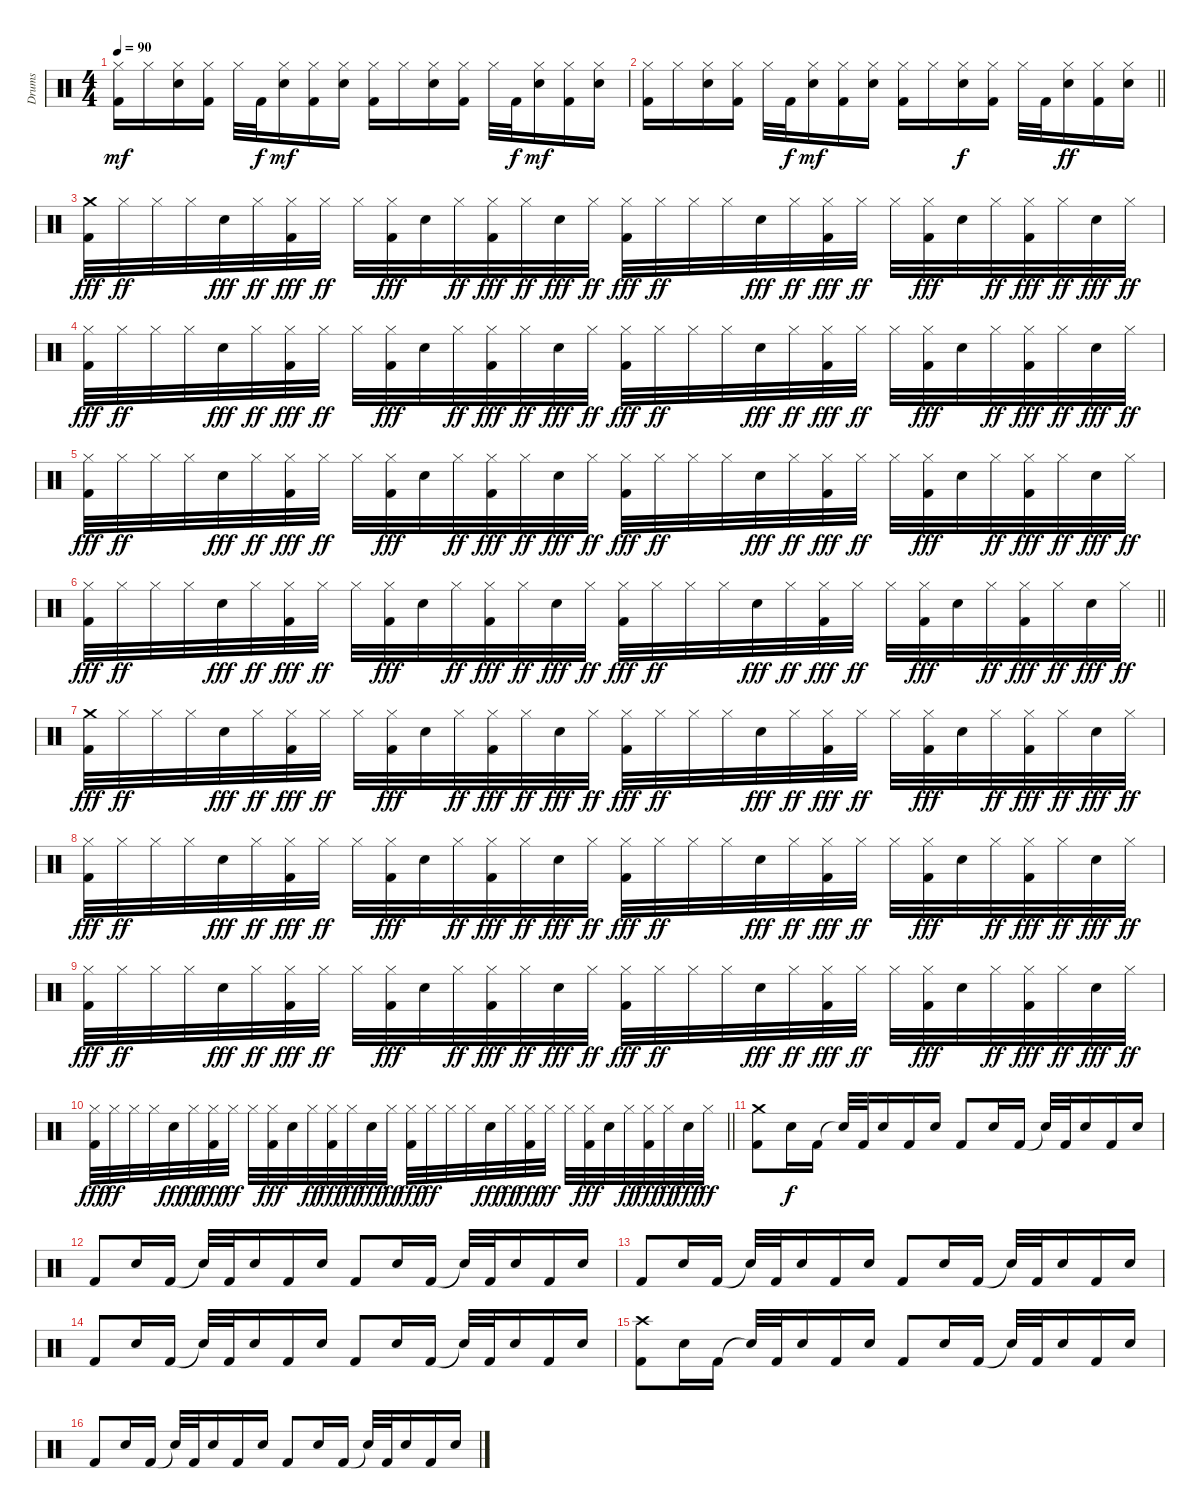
\track ("Drums" "Drums") {instrument percussion}
\staff {score}
\articulation defaults
\ts (4 4)
\tempo 90
\clef neutral
\ks c
("Hi-Hat (closed)" "Kick (hit) 2").16{dy mf} "Hi-Hat (closed)".16 ("Hi-Hat (closed)" "Snare (hit) 2").16 ("Hi-Hat (closed)" "Kick (hit) 2").16 "Hi-Hat (closed)".32 "Kick (hit) 2".32{dy f} ("Hi-Hat (closed)" "Snare (hit) 2").16{dy mf} ("Hi-Hat (closed)" "Kick (hit) 2").16 ("Hi-Hat (closed)" "Snare (hit) 2").16 ("Hi-Hat (closed)" "Kick (hit) 2").16 "Hi-Hat (closed)".16 ("Hi-Hat (closed)" "Snare (hit) 2").16 ("Hi-Hat (closed)" "Kick (hit) 2").16 "Hi-Hat (closed)".32 "Kick (hit) 2".32{dy f} ("Hi-Hat (closed)" "Snare (hit) 2").16{dy mf} ("Hi-Hat (closed)" "Kick (hit) 2").16 ("Hi-Hat (closed)" "Snare (hit) 2").16 |
\barLineRight lightlight
("Hi-Hat (closed)" "Kick (hit) 2").16 "Hi-Hat (closed)".16 ("Hi-Hat (closed)" "Snare (hit) 2").16 ("Hi-Hat (closed)" "Kick (hit) 2").16 "Hi-Hat (closed)".32 "Kick (hit) 2".32{dy f} ("Hi-Hat (closed)" "Snare (hit) 2").16{dy mf} ("Hi-Hat (closed)" "Kick (hit) 2").16 ("Hi-Hat (closed)" "Snare (hit) 2").16 ("Hi-Hat (closed)" "Kick (hit) 2").16 "Hi-Hat (closed)".16 ("Hi-Hat (closed)" "Snare (hit) 2").16{dy f} ("Hi-Hat (closed)" "Kick (hit) 2").16 "Hi-Hat (closed)".32 "Kick (hit) 2".32 ("Hi-Hat (closed)" "Snare (hit) 2").16{dy ff} ("Hi-Hat (closed)" "Kick (hit) 2").16 ("Hi-Hat (closed)" "Snare (hit) 2").16 |
\section ("" "")
("Crash medium (hit)" "Kick (hit) 2").32{dy fff} "Hi-Hat (closed)".32{dy ff} "Hi-Hat (closed)".32 "Hi-Hat (closed)".32 "Snare (hit) 2".32{dy fff} "Hi-Hat (closed)".32{dy ff} ("Hi-Hat (closed)" "Kick (hit) 2").32{dy fff} "Hi-Hat (closed)".32{dy ff} "Hi-Hat (closed)".32 ("Hi-Hat (closed)" "Kick (hit) 2").32{dy fff} "Snare (hit) 2".32 "Hi-Hat (closed)".32{dy ff} ("Hi-Hat (closed)" "Kick (hit) 2").32{dy fff} "Hi-Hat (closed)".32{dy ff} "Snare (hit) 2".32{dy fff} "Hi-Hat (closed)".32{dy ff} ("Hi-Hat (closed)" "Kick (hit) 2").32{dy fff} "Hi-Hat (closed)".32{dy ff} "Hi-Hat (closed)".32 "Hi-Hat (closed)".32 "Snare (hit) 2".32{dy fff} "Hi-Hat (closed)".32{dy ff} ("Hi-Hat (closed)" "Kick (hit) 2").32{dy fff} "Hi-Hat (closed)".32{dy ff} "Hi-Hat (closed)".32 ("Hi-Hat (closed)" "Kick (hit) 2").32{dy fff} "Snare (hit) 2".32 "Hi-Hat (closed)".32{dy ff} ("Hi-Hat (closed)" "Kick (hit) 2").32{dy fff} "Hi-Hat (closed)".32{dy ff} "Snare (hit) 2".32{dy fff} "Hi-Hat (closed)".32{dy ff} |
("Hi-Hat (closed)" "Kick (hit) 2").32{dy fff} "Hi-Hat (closed)".32{dy ff} "Hi-Hat (closed)".32 "Hi-Hat (closed)".32 "Snare (hit) 2".32{dy fff} "Hi-Hat (closed)".32{dy ff} ("Hi-Hat (closed)" "Kick (hit) 2").32{dy fff} "Hi-Hat (closed)".32{dy ff} "Hi-Hat (closed)".32 ("Hi-Hat (closed)" "Kick (hit) 2").32{dy fff} "Snare (hit) 2".32 "Hi-Hat (closed)".32{dy ff} ("Hi-Hat (closed)" "Kick (hit) 2").32{dy fff} "Hi-Hat (closed)".32{dy ff} "Snare (hit) 2".32{dy fff} "Hi-Hat (closed)".32{dy ff} ("Hi-Hat (closed)" "Kick (hit) 2").32{dy fff} "Hi-Hat (closed)".32{dy ff} "Hi-Hat (closed)".32 "Hi-Hat (closed)".32 "Snare (hit) 2".32{dy fff} "Hi-Hat (closed)".32{dy ff} ("Hi-Hat (closed)" "Kick (hit) 2").32{dy fff} "Hi-Hat (closed)".32{dy ff} "Hi-Hat (closed)".32 ("Hi-Hat (closed)" "Kick (hit) 2").32{dy fff} "Snare (hit) 2".32 "Hi-Hat (closed)".32{dy ff} ("Hi-Hat (closed)" "Kick (hit) 2").32{dy fff} "Hi-Hat (closed)".32{dy ff} "Snare (hit) 2".32{dy fff} "Hi-Hat (closed)".32{dy ff} |
("Hi-Hat (closed)" "Kick (hit) 2").32{dy fff} "Hi-Hat (closed)".32{dy ff} "Hi-Hat (closed)".32 "Hi-Hat (closed)".32 "Snare (hit) 2".32{dy fff} "Hi-Hat (closed)".32{dy ff} ("Hi-Hat (closed)" "Kick (hit) 2").32{dy fff} "Hi-Hat (closed)".32{dy ff} "Hi-Hat (closed)".32 ("Hi-Hat (closed)" "Kick (hit) 2").32{dy fff} "Snare (hit) 2".32 "Hi-Hat (closed)".32{dy ff} ("Hi-Hat (closed)" "Kick (hit) 2").32{dy fff} "Hi-Hat (closed)".32{dy ff} "Snare (hit) 2".32{dy fff} "Hi-Hat (closed)".32{dy ff} ("Hi-Hat (closed)" "Kick (hit) 2").32{dy fff} "Hi-Hat (closed)".32{dy ff} "Hi-Hat (closed)".32 "Hi-Hat (closed)".32 "Snare (hit) 2".32{dy fff} "Hi-Hat (closed)".32{dy ff} ("Hi-Hat (closed)" "Kick (hit) 2").32{dy fff} "Hi-Hat (closed)".32{dy ff} "Hi-Hat (closed)".32 ("Hi-Hat (closed)" "Kick (hit) 2").32{dy fff} "Snare (hit) 2".32 "Hi-Hat (closed)".32{dy ff} ("Hi-Hat (closed)" "Kick (hit) 2").32{dy fff} "Hi-Hat (closed)".32{dy ff} "Snare (hit) 2".32{dy fff} "Hi-Hat (closed)".32{dy ff} |
\barLineRight lightlight
("Hi-Hat (closed)" "Kick (hit) 2").32{dy fff} "Hi-Hat (closed)".32{dy ff} "Hi-Hat (closed)".32 "Hi-Hat (closed)".32 "Snare (hit) 2".32{dy fff} "Hi-Hat (closed)".32{dy ff} ("Hi-Hat (closed)" "Kick (hit) 2").32{dy fff} "Hi-Hat (closed)".32{dy ff} "Hi-Hat (closed)".32 ("Hi-Hat (closed)" "Kick (hit) 2").32{dy fff} "Snare (hit) 2".32 "Hi-Hat (closed)".32{dy ff} ("Hi-Hat (closed)" "Kick (hit) 2").32{dy fff} "Hi-Hat (closed)".32{dy ff} "Snare (hit) 2".32{dy fff} "Hi-Hat (closed)".32{dy ff} ("Hi-Hat (closed)" "Kick (hit) 2").32{dy fff} "Hi-Hat (closed)".32{dy ff} "Hi-Hat (closed)".32 "Hi-Hat (closed)".32 "Snare (hit) 2".32{dy fff} "Hi-Hat (closed)".32{dy ff} ("Hi-Hat (closed)" "Kick (hit) 2").32{dy fff} "Hi-Hat (closed)".32{dy ff} "Hi-Hat (closed)".32 ("Hi-Hat (closed)" "Kick (hit) 2").32{dy fff} "Snare (hit) 2".32 "Hi-Hat (closed)".32{dy ff} ("Hi-Hat (closed)" "Kick (hit) 2").32{dy fff} "Hi-Hat (closed)".32{dy ff} "Snare (hit) 2".32{dy fff} "Hi-Hat (closed)".32{dy ff} |
("Crash medium (hit)" "Kick (hit) 2").32{dy fff} "Hi-Hat (closed)".32{dy ff} "Hi-Hat (closed)".32 "Hi-Hat (closed)".32 "Snare (hit) 2".32{dy fff} "Hi-Hat (closed)".32{dy ff} ("Hi-Hat (closed)" "Kick (hit) 2").32{dy fff} "Hi-Hat (closed)".32{dy ff} "Hi-Hat (closed)".32 ("Hi-Hat (closed)" "Kick (hit) 2").32{dy fff} "Snare (hit) 2".32 "Hi-Hat (closed)".32{dy ff} ("Hi-Hat (closed)" "Kick (hit) 2").32{dy fff} "Hi-Hat (closed)".32{dy ff} "Snare (hit) 2".32{dy fff} "Hi-Hat (closed)".32{dy ff} ("Hi-Hat (closed)" "Kick (hit) 2").32{dy fff} "Hi-Hat (closed)".32{dy ff} "Hi-Hat (closed)".32 "Hi-Hat (closed)".32 "Snare (hit) 2".32{dy fff} "Hi-Hat (closed)".32{dy ff} ("Hi-Hat (closed)" "Kick (hit) 2").32{dy fff} "Hi-Hat (closed)".32{dy ff} "Hi-Hat (closed)".32 ("Hi-Hat (closed)" "Kick (hit) 2").32{dy fff} "Snare (hit) 2".32 "Hi-Hat (closed)".32{dy ff} ("Hi-Hat (closed)" "Kick (hit) 2").32{dy fff} "Hi-Hat (closed)".32{dy ff} "Snare (hit) 2".32{dy fff} "Hi-Hat (closed)".32{dy ff} |
("Hi-Hat (closed)" "Kick (hit) 2").32{dy fff} "Hi-Hat (closed)".32{dy ff} "Hi-Hat (closed)".32 "Hi-Hat (closed)".32 "Snare (hit) 2".32{dy fff} "Hi-Hat (closed)".32{dy ff} ("Hi-Hat (closed)" "Kick (hit) 2").32{dy fff} "Hi-Hat (closed)".32{dy ff} "Hi-Hat (closed)".32 ("Hi-Hat (closed)" "Kick (hit) 2").32{dy fff} "Snare (hit) 2".32 "Hi-Hat (closed)".32{dy ff} ("Hi-Hat (closed)" "Kick (hit) 2").32{dy fff} "Hi-Hat (closed)".32{dy ff} "Snare (hit) 2".32{dy fff} "Hi-Hat (closed)".32{dy ff} ("Hi-Hat (closed)" "Kick (hit) 2").32{dy fff} "Hi-Hat (closed)".32{dy ff} "Hi-Hat (closed)".32 "Hi-Hat (closed)".32 "Snare (hit) 2".32{dy fff} "Hi-Hat (closed)".32{dy ff} ("Hi-Hat (closed)" "Kick (hit) 2").32{dy fff} "Hi-Hat (closed)".32{dy ff} "Hi-Hat (closed)".32 ("Hi-Hat (closed)" "Kick (hit) 2").32{dy fff} "Snare (hit) 2".32 "Hi-Hat (closed)".32{dy ff} ("Hi-Hat (closed)" "Kick (hit) 2").32{dy fff} "Hi-Hat (closed)".32{dy ff} "Snare (hit) 2".32{dy fff} "Hi-Hat (closed)".32{dy ff} |
("Hi-Hat (closed)" "Kick (hit) 2").32{dy fff} "Hi-Hat (closed)".32{dy ff} "Hi-Hat (closed)".32 "Hi-Hat (closed)".32 "Snare (hit) 2".32{dy fff} "Hi-Hat (closed)".32{dy ff} ("Hi-Hat (closed)" "Kick (hit) 2").32{dy fff} "Hi-Hat (closed)".32{dy ff} "Hi-Hat (closed)".32 ("Hi-Hat (closed)" "Kick (hit) 2").32{dy fff} "Snare (hit) 2".32 "Hi-Hat (closed)".32{dy ff} ("Hi-Hat (closed)" "Kick (hit) 2").32{dy fff} "Hi-Hat (closed)".32{dy ff} "Snare (hit) 2".32{dy fff} "Hi-Hat (closed)".32{dy ff} ("Hi-Hat (closed)" "Kick (hit) 2").32{dy fff} "Hi-Hat (closed)".32{dy ff} "Hi-Hat (closed)".32 "Hi-Hat (closed)".32 "Snare (hit) 2".32{dy fff} "Hi-Hat (closed)".32{dy ff} ("Hi-Hat (closed)" "Kick (hit) 2").32{dy fff} "Hi-Hat (closed)".32{dy ff} "Hi-Hat (closed)".32 ("Hi-Hat (closed)" "Kick (hit) 2").32{dy fff} "Snare (hit) 2".32 "Hi-Hat (closed)".32{dy ff} ("Hi-Hat (closed)" "Kick (hit) 2").32{dy fff} "Hi-Hat (closed)".32{dy ff} "Snare (hit) 2".32{dy fff} "Hi-Hat (closed)".32{dy ff} |
\barLineRight lightlight
("Hi-Hat (closed)" "Kick (hit) 2").32{dy fff} "Hi-Hat (closed)".32{dy ff} "Hi-Hat (closed)".32 "Hi-Hat (closed)".32 "Snare (hit) 2".32{dy fff} "Hi-Hat (closed)".32{dy ff} ("Hi-Hat (closed)" "Kick (hit) 2").32{dy fff} "Hi-Hat (closed)".32{dy ff} "Hi-Hat (closed)".32 ("Hi-Hat (closed)" "Kick (hit) 2").32{dy fff} "Snare (hit) 2".32 "Hi-Hat (closed)".32{dy ff} ("Hi-Hat (closed)" "Kick (hit) 2").32{dy fff} "Hi-Hat (closed)".32{dy ff} "Snare (hit) 2".32{dy fff} "Hi-Hat (closed)".32{dy ff} ("Hi-Hat (closed)" "Kick (hit) 2").32{dy fff} "Hi-Hat (closed)".32{dy ff} "Hi-Hat (closed)".32 "Hi-Hat (closed)".32 "Snare (hit) 2".32{dy fff} "Hi-Hat (closed)".32{dy ff} ("Hi-Hat (closed)" "Kick (hit) 2").32{dy fff} "Hi-Hat (closed)".32{dy ff} "Hi-Hat (closed)".32 ("Hi-Hat (closed)" "Kick (hit) 2").32{dy fff} "Snare (hit) 2".32 "Hi-Hat (closed)".32{dy ff} ("Hi-Hat (closed)" "Kick (hit) 2").32{dy fff} "Hi-Hat (closed)".32{dy ff} "Snare (hit) 2".32{dy fff} "Hi-Hat (closed)".32{dy ff} |
\section ("" "")
("Crash medium (hit)" "Kick (hit) 2").8 "Snare (hit) 2".16{dy f} "Kick (hit) 2".16 "Snare (hit)"{t}.32 "Kick (hit) 2".32 "Snare (hit) 2".16 "Kick (hit) 2".16 "Snare (hit) 2".16 "Kick (hit) 2".8 "Snare (hit) 2".16 "Kick (hit) 2".16 "Snare (hit)"{t}.32 "Kick (hit) 2".32 "Snare (hit) 2".16 "Kick (hit) 2".16 "Snare (hit) 2".16 |
"Kick (hit) 2".8 "Snare (hit) 2".16 "Kick (hit) 2".16 "Snare (hit)"{t}.32 "Kick (hit) 2".32 "Snare (hit) 2".16 "Kick (hit) 2".16 "Snare (hit) 2".16 "Kick (hit) 2".8 "Snare (hit) 2".16 "Kick (hit) 2".16 "Snare (hit)"{t}.32 "Kick (hit) 2".32 "Snare (hit) 2".16 "Kick (hit) 2".16 "Snare (hit) 2".16 |
"Kick (hit) 2".8 "Snare (hit) 2".16 "Kick (hit) 2".16 "Snare (hit)"{t}.32 "Kick (hit) 2".32 "Snare (hit) 2".16 "Kick (hit) 2".16 "Snare (hit) 2".16 "Kick (hit) 2".8 "Snare (hit) 2".16 "Kick (hit) 2".16 "Snare (hit)"{t}.32 "Kick (hit) 2".32 "Snare (hit) 2".16 "Kick (hit) 2".16 "Snare (hit) 2".16 |
"Kick (hit) 2".8 "Snare (hit) 2".16 "Kick (hit) 2".16 "Snare (hit)"{t}.32 "Kick (hit) 2".32 "Snare (hit) 2".16 "Kick (hit) 2".16 "Snare (hit) 2".16 "Kick (hit) 2".8 "Snare (hit) 2".16 "Kick (hit) 2".16 "Snare (hit)"{t}.32 "Kick (hit) 2".32 "Snare (hit) 2".16 "Kick (hit) 2".16 "Snare (hit) 2".16 |
("Crash high (hit)" "Kick (hit) 2").8 "Snare (hit) 2".16 "Kick (hit) 2".16 "Snare (hit)"{t}.32 "Kick (hit) 2".32 "Snare (hit) 2".16 "Kick (hit) 2".16 "Snare (hit) 2".16 "Kick (hit) 2".8 "Snare (hit) 2".16 "Kick (hit) 2".16 "Snare (hit)"{t}.32 "Kick (hit) 2".32 "Snare (hit) 2".16 "Kick (hit) 2".16 "Snare (hit) 2".16 |
"Kick (hit) 2".8 "Snare (hit) 2".16 "Kick (hit) 2".16 "Snare (hit)"{t}.32 "Kick (hit) 2".32 "Snare (hit) 2".16 "Kick (hit) 2".16 "Snare (hit) 2".16 "Kick (hit) 2".8 "Snare (hit) 2".16 "Kick (hit) 2".16 "Snare (hit)"{t}.32 "Kick (hit) 2".32 "Snare (hit) 2".16 "Kick (hit) 2".16 "Snare (hit) 2".16
